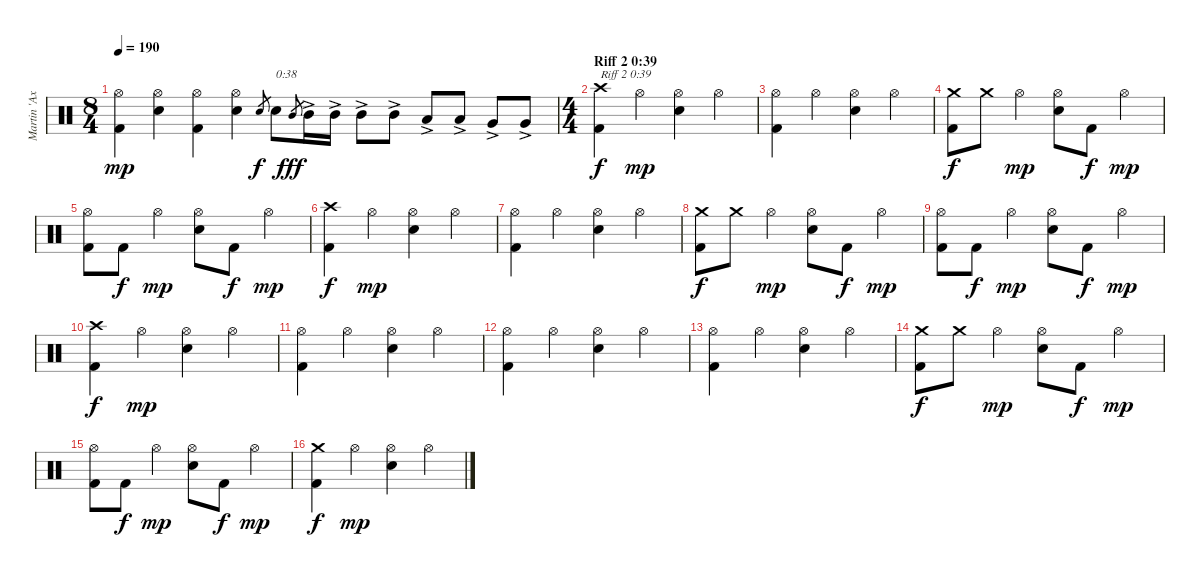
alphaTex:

\track ("Martin 'Axe' Axenroth" "Martin 'Ax") {instrument percussion}
\staff {score}
\articulation defaults
\ts (8 4)
\tempo 190
\clef neutral
\ks c
("Kick (hit) 2" "Hi-Hat (open)").4{dy mp} ("Electric Snare (hit)" "Hi-Hat (open)").4 ("Kick (hit) 2" "Hi-Hat (open)").4 ("Electric Snare (hit)" "Hi-Hat (open)").4 "Electric Snare (hit)".8{gr dy f} "Electric Snare (hit)".8{txt "0:38"} "Mid Tom (hit)".8{gr dy fff} "Mid Tom (hit)"{ac}.16 "Mid Tom (hit)"{ac}.16 "Mid Tom (hit)"{ac}.8 "Mid Tom (hit)"{ac}.8 "Low Tom (hit)"{ac}.8 "Low Tom (hit)"{ac}.8 "Very Low Tom (hit)"{ac}.8 "Very Low Tom (hit)"{ac}.8 |
\ts (4 4)
\section ("" "Riff 2 0:39")
("Kick (hit) 2" "Crash high (hit)").4{txt "Riff 2 0:39" dy f} "Hi-Hat (open)".4{dy mp} ("Electric Snare (hit)" "Hi-Hat (open)").4 "Hi-Hat (open)".4 |
("Kick (hit) 2" "Hi-Hat (open)").4 "Hi-Hat (open)".4 ("Electric Snare (hit)" "Hi-Hat (open)").4 "Hi-Hat (open)".4 |
("Kick (hit) 2" "Crash medium (hit)").8{dy f} "Crash medium (hit)".8 "Hi-Hat (open)".4{dy mp} ("Electric Snare (hit)" "Hi-Hat (open)").8 "Kick (hit) 2".8{dy f} "Hi-Hat (open)".4{dy mp} |
("Kick (hit) 2" "Hi-Hat (open)").8 "Kick (hit) 2".8{dy f} "Hi-Hat (open)".4{dy mp} ("Electric Snare (hit)" "Hi-Hat (open)").8 "Kick (hit) 2".8{dy f} "Hi-Hat (open)".4{dy mp} |
("Kick (hit) 2" "Crash high (hit)").4{dy f} "Hi-Hat (open)".4{dy mp} ("Electric Snare (hit)" "Hi-Hat (open)").4 "Hi-Hat (open)".4 |
("Kick (hit) 2" "Hi-Hat (open)").4 "Hi-Hat (open)".4 ("Electric Snare (hit)" "Hi-Hat (open)").4 "Hi-Hat (open)".4 |
("Kick (hit) 2" "Crash medium (hit)").8{dy f} "Crash medium (hit)".8 "Hi-Hat (open)".4{dy mp} ("Electric Snare (hit)" "Hi-Hat (open)").8 "Kick (hit) 2".8{dy f} "Hi-Hat (open)".4{dy mp} |
("Kick (hit) 2" "Hi-Hat (open)").8 "Kick (hit) 2".8{dy f} "Hi-Hat (open)".4{dy mp} ("Electric Snare (hit)" "Hi-Hat (open)").8 "Kick (hit) 2".8{dy f} "Hi-Hat (open)".4{dy mp} |
("Kick (hit) 2" "Crash high (hit)").4{dy f} "Hi-Hat (open)".4{dy mp} ("Electric Snare (hit)" "Hi-Hat (open)").4 "Hi-Hat (open)".4 |
("Kick (hit) 2" "Hi-Hat (open)").4 "Hi-Hat (open)".4 ("Electric Snare (hit)" "Hi-Hat (open)").4 "Hi-Hat (open)".4 |
("Kick (hit) 2" "Hi-Hat (open)").4 "Hi-Hat (open)".4 ("Electric Snare (hit)" "Hi-Hat (open)").4 "Hi-Hat (open)".4 |
("Kick (hit) 2" "Hi-Hat (open)").4 "Hi-Hat (open)".4 ("Electric Snare (hit)" "Hi-Hat (open)").4 "Hi-Hat (open)".4 |
("Kick (hit) 2" "Crash medium (hit)").8{dy f} "Crash medium (hit)".8 "Hi-Hat (open)".4{dy mp} ("Electric Snare (hit)" "Hi-Hat (open)").8 "Kick (hit) 2".8{dy f} "Hi-Hat (open)".4{dy mp} |
("Kick (hit) 2" "Hi-Hat (open)").8 "Kick (hit) 2".8{dy f} "Hi-Hat (open)".4{dy mp} ("Electric Snare (hit)" "Hi-Hat (open)").8 "Kick (hit) 2".8{dy f} "Hi-Hat (open)".4{dy mp} |
("Kick (hit) 2" "Crash medium (hit)").4{dy f} "Hi-Hat (open)".4{dy mp} ("Electric Snare (hit)" "Hi-Hat (open)").4 "Hi-Hat (open)".4
